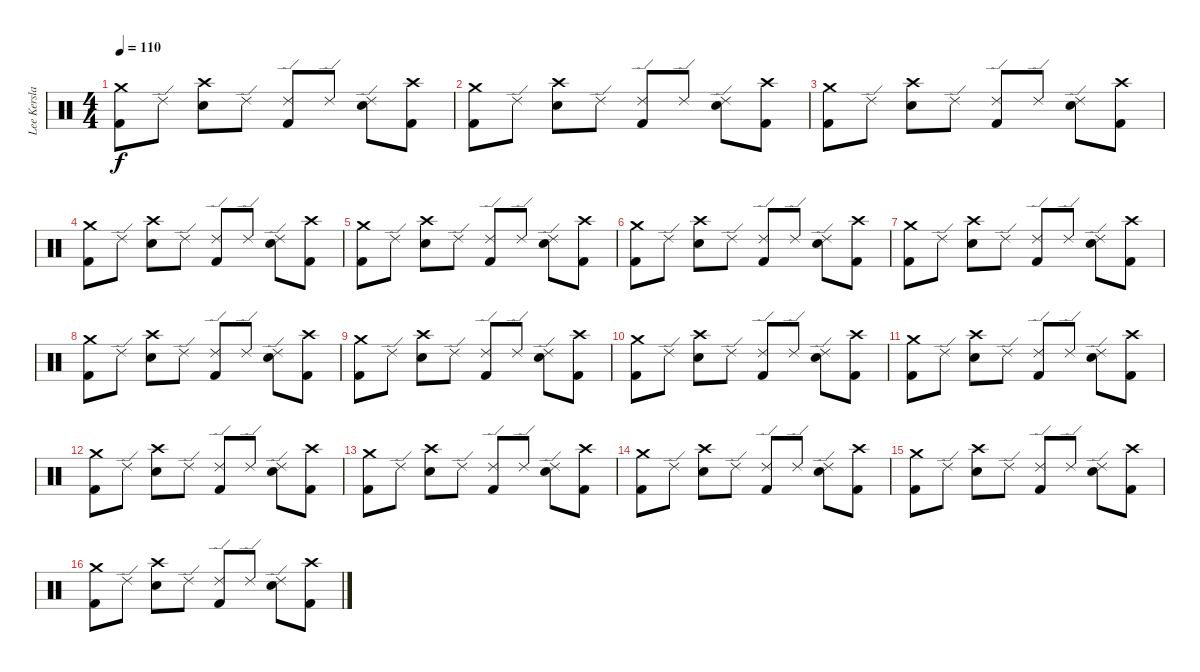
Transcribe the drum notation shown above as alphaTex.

\track ("Lee Kerslake - Drums" "Lee Kersla") {instrument percussion}
\staff {score}
\articulation defaults
\ts (4 4)
\tempo 110
\clef neutral
\ks c
("Crash medium (hit)" "Kick (hit) 2").8{dy f} "Ride (edge) 2".8 ("Crash high (hit)" "Snare (hit) 2").8 "Ride (edge) 2".8 ("Ride (edge) 2" "Kick (hit) 2").8 "Ride (edge) 2".8 ("Ride (edge) 2" "Snare (hit) 2").8 ("Crash high (hit)" "Kick (hit) 2").8 |
("Crash medium (hit)" "Kick (hit) 2").8 "Ride (edge) 2".8 ("Crash high (hit)" "Snare (hit) 2").8 "Ride (edge) 2".8 ("Ride (edge) 2" "Kick (hit) 2").8 "Ride (edge) 2".8 ("Ride (edge) 2" "Snare (hit) 2").8 ("Crash high (hit)" "Kick (hit) 2").8 |
("Crash medium (hit)" "Kick (hit) 2").8 "Ride (edge) 2".8 ("Crash high (hit)" "Snare (hit) 2").8 "Ride (edge) 2".8 ("Ride (edge) 2" "Kick (hit) 2").8 "Ride (edge) 2".8 ("Ride (edge) 2" "Snare (hit) 2").8 ("Crash high (hit)" "Kick (hit) 2").8 |
("Crash medium (hit)" "Kick (hit) 2").8 "Ride (edge) 2".8 ("Crash high (hit)" "Snare (hit) 2").8 "Ride (edge) 2".8 ("Ride (edge) 2" "Kick (hit) 2").8 "Ride (edge) 2".8 ("Ride (edge) 2" "Snare (hit) 2").8 ("Crash high (hit)" "Kick (hit) 2").8 |
("Crash medium (hit)" "Kick (hit) 2").8 "Ride (edge) 2".8 ("Crash high (hit)" "Snare (hit) 2").8 "Ride (edge) 2".8 ("Ride (edge) 2" "Kick (hit) 2").8 "Ride (edge) 2".8 ("Ride (edge) 2" "Snare (hit) 2").8 ("Crash high (hit)" "Kick (hit) 2").8 |
("Crash medium (hit)" "Kick (hit) 2").8 "Ride (edge) 2".8 ("Crash high (hit)" "Snare (hit) 2").8 "Ride (edge) 2".8 ("Ride (edge) 2" "Kick (hit) 2").8 "Ride (edge) 2".8 ("Ride (edge) 2" "Snare (hit) 2").8 ("Crash high (hit)" "Kick (hit) 2").8 |
("Crash medium (hit)" "Kick (hit) 2").8 "Ride (edge) 2".8 ("Crash high (hit)" "Snare (hit) 2").8 "Ride (edge) 2".8 ("Ride (edge) 2" "Kick (hit) 2").8 "Ride (edge) 2".8 ("Ride (edge) 2" "Snare (hit) 2").8 ("Crash high (hit)" "Kick (hit) 2").8 |
("Crash medium (hit)" "Kick (hit) 2").8 "Ride (edge) 2".8 ("Crash high (hit)" "Snare (hit) 2").8 "Ride (edge) 2".8 ("Ride (edge) 2" "Kick (hit) 2").8 "Ride (edge) 2".8 ("Ride (edge) 2" "Snare (hit) 2").8 ("Crash high (hit)" "Kick (hit) 2").8 |
("Crash medium (hit)" "Kick (hit) 2").8 "Ride (edge) 2".8 ("Crash high (hit)" "Snare (hit) 2").8 "Ride (edge) 2".8 ("Ride (edge) 2" "Kick (hit) 2").8 "Ride (edge) 2".8 ("Ride (edge) 2" "Snare (hit) 2").8 ("Crash high (hit)" "Kick (hit) 2").8 |
("Crash medium (hit)" "Kick (hit) 2").8 "Ride (edge) 2".8 ("Crash high (hit)" "Snare (hit) 2").8 "Ride (edge) 2".8 ("Ride (edge) 2" "Kick (hit) 2").8 "Ride (edge) 2".8 ("Ride (edge) 2" "Snare (hit) 2").8 ("Crash high (hit)" "Kick (hit) 2").8 |
("Crash medium (hit)" "Kick (hit) 2").8 "Ride (edge) 2".8 ("Crash high (hit)" "Snare (hit) 2").8 "Ride (edge) 2".8 ("Ride (edge) 2" "Kick (hit) 2").8 "Ride (edge) 2".8 ("Ride (edge) 2" "Snare (hit) 2").8 ("Crash high (hit)" "Kick (hit) 2").8 |
("Crash medium (hit)" "Kick (hit) 2").8 "Ride (edge) 2".8 ("Crash high (hit)" "Snare (hit) 2").8 "Ride (edge) 2".8 ("Ride (edge) 2" "Kick (hit) 2").8 "Ride (edge) 2".8 ("Ride (edge) 2" "Snare (hit) 2").8 ("Crash high (hit)" "Kick (hit) 2").8 |
("Crash medium (hit)" "Kick (hit) 2").8 "Ride (edge) 2".8 ("Crash high (hit)" "Snare (hit) 2").8 "Ride (edge) 2".8 ("Ride (edge) 2" "Kick (hit) 2").8 "Ride (edge) 2".8 ("Ride (edge) 2" "Snare (hit) 2").8 ("Crash high (hit)" "Kick (hit) 2").8 |
("Crash medium (hit)" "Kick (hit) 2").8 "Ride (edge) 2".8 ("Crash high (hit)" "Snare (hit) 2").8 "Ride (edge) 2".8 ("Ride (edge) 2" "Kick (hit) 2").8 "Ride (edge) 2".8 ("Ride (edge) 2" "Snare (hit) 2").8 ("Crash high (hit)" "Kick (hit) 2").8 |
("Crash medium (hit)" "Kick (hit) 2").8 "Ride (edge) 2".8 ("Crash high (hit)" "Snare (hit) 2").8 "Ride (edge) 2".8 ("Ride (edge) 2" "Kick (hit) 2").8 "Ride (edge) 2".8 ("Ride (edge) 2" "Snare (hit) 2").8 ("Crash high (hit)" "Kick (hit) 2").8 |
("Crash medium (hit)" "Kick (hit) 2").8 "Ride (edge) 2".8 ("Crash high (hit)" "Snare (hit) 2").8 "Ride (edge) 2".8 ("Ride (edge) 2" "Kick (hit) 2").8 "Ride (edge) 2".8 ("Ride (edge) 2" "Snare (hit) 2").8 ("Crash high (hit)" "Kick (hit) 2").8
